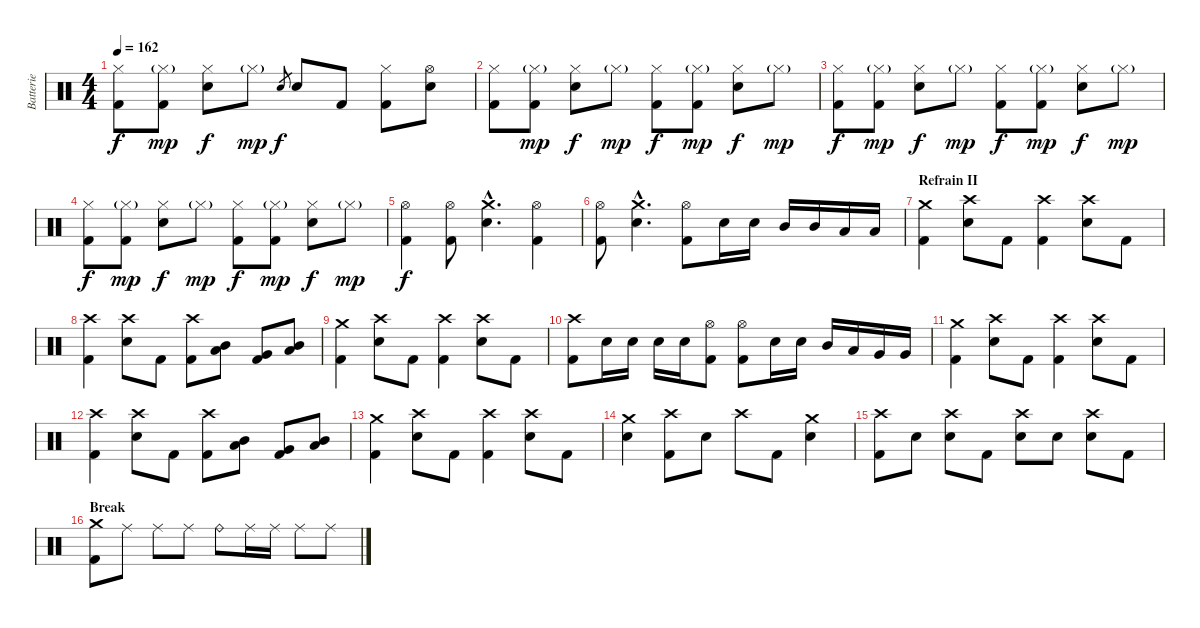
\track ("Batterie" "Batterie") {instrument percussion}
\staff {score}
\articulation defaults
\ts (4 4)
\tempo 162
\clef neutral
\ks c
("Hi-Hat (closed)" "Kick (hit) 2").8{dy f} ("Hi-Hat (closed)"{g} "Kick (hit) 2").8{dy mp} ("Hi-Hat (closed)" "Electric Snare (hit)").8{dy f} "Hi-Hat (closed)"{g}.8{dy mp} "Electric Snare (hit)".8{gr dy f} "Electric Snare (hit)".8 "Kick (hit) 2".8 ("Hi-Hat (closed)" "Kick (hit) 2").8 ("Hi-Hat (open)" "Electric Snare (hit)").8 |
("Hi-Hat (closed)" "Kick (hit) 2").8 ("Hi-Hat (closed)"{g} "Kick (hit) 2").8{dy mp} ("Hi-Hat (closed)" "Electric Snare (hit)").8{dy f} "Hi-Hat (closed)"{g}.8{dy mp} ("Hi-Hat (closed)" "Kick (hit) 2").8{dy f} ("Hi-Hat (closed)"{g} "Kick (hit) 2").8{dy mp} ("Hi-Hat (closed)" "Electric Snare (hit)").8{dy f} "Hi-Hat (closed)"{g}.8{dy mp} |
("Hi-Hat (closed)" "Kick (hit) 2").8{dy f} ("Hi-Hat (closed)"{g} "Kick (hit) 2").8{dy mp} ("Hi-Hat (closed)" "Electric Snare (hit)").8{dy f} "Hi-Hat (closed)"{g}.8{dy mp} ("Hi-Hat (closed)" "Kick (hit) 2").8{dy f} ("Hi-Hat (closed)"{g} "Kick (hit) 2").8{dy mp} ("Hi-Hat (closed)" "Electric Snare (hit)").8{dy f} "Hi-Hat (closed)"{g}.8{dy mp} |
("Hi-Hat (closed)" "Kick (hit) 2").8{dy f} ("Hi-Hat (closed)"{g} "Kick (hit) 2").8{dy mp} ("Hi-Hat (closed)" "Electric Snare (hit)").8{dy f} "Hi-Hat (closed)"{g}.8{dy mp} ("Hi-Hat (closed)" "Kick (hit) 2").8{dy f} ("Hi-Hat (closed)"{g} "Kick (hit) 2").8{dy mp} ("Hi-Hat (closed)" "Electric Snare (hit)").8{dy f} "Hi-Hat (closed)"{g}.8{dy mp} |
("Hi-Hat (open)" "Kick (hit) 2").4{dy f} ("Hi-Hat (open)" "Kick (hit) 2").8 ("Crash medium (hit)"{hac} "Electric Snare (hit)"{hac}).4{d} ("Hi-Hat (open)" "Kick (hit) 2").4 |
("Hi-Hat (open)" "Kick (hit) 2").8 ("Crash medium (hit)"{hac} "Electric Snare (hit)"{hac}).4{d} ("Hi-Hat (open)" "Kick (hit) 2").8 "Electric Snare (hit)".16 "Electric Snare (hit)".16 "Mid Tom (hit)".16 "Mid Tom (hit)".16 "Low Tom (hit)".16 "Low Tom (hit)".16 |
\section ("" "Refrain II")
("Crash medium (hit)" "Kick (hit) 2").4 ("Crash high (hit)" "Electric Snare (hit)").8 "Kick (hit) 2".8 ("Crash high (hit)" "Kick (hit) 2").4 ("Crash high (hit)" "Electric Snare (hit)").8 "Kick (hit) 2".8 |
("Crash high (hit)" "Kick (hit) 2").4 ("Crash high (hit)" "Electric Snare (hit)").8 "Kick (hit) 2".8 ("Crash high (hit)" "Kick (hit) 2").8 ("Mid Tom (hit)" "Low Tom (hit)").8 ("Very Low Tom (hit)" "Kick (hit) 2").8 ("Mid Tom (hit)" "Low Tom (hit)").8 |
("Crash medium (hit)" "Kick (hit) 2").4 ("Crash high (hit)" "Electric Snare (hit)").8 "Kick (hit) 2".8 ("Crash high (hit)" "Kick (hit) 2").4 ("Crash high (hit)" "Electric Snare (hit)").8 "Kick (hit) 2".8 |
("Crash high (hit)" "Kick (hit) 2").8 "Electric Snare (hit)".16 "Electric Snare (hit)".16 "Electric Snare (hit)".16 "Electric Snare (hit)".16 ("Hi-Hat (open)" "Kick (hit) 2").8 ("Hi-Hat (open)" "Kick (hit) 2").8 "Electric Snare (hit)".16 "Electric Snare (hit)".16 "Mid Tom (hit)".16 "Low Tom (hit)".16 "Very Low Tom (hit)".16 "Very Low Tom (hit)".16 |
("Crash medium (hit)" "Kick (hit) 2").4 ("Crash high (hit)" "Electric Snare (hit)").8 "Kick (hit) 2".8 ("Crash high (hit)" "Kick (hit) 2").4 ("Crash high (hit)" "Electric Snare (hit)").8 "Kick (hit) 2".8 |
("Crash high (hit)" "Kick (hit) 2").4 ("Crash high (hit)" "Electric Snare (hit)").8 "Kick (hit) 2".8 ("Crash high (hit)" "Kick (hit) 2").8 ("Mid Tom (hit)" "Low Tom (hit)").8 ("Very Low Tom (hit)" "Kick (hit) 2").8 ("Mid Tom (hit)" "Low Tom (hit)").8 |
("Crash medium (hit)" "Kick (hit) 2").4 ("Crash high (hit)" "Electric Snare (hit)").8 "Kick (hit) 2".8 ("Crash high (hit)" "Kick (hit) 2").4 ("Crash high (hit)" "Electric Snare (hit)").8 "Kick (hit) 2".8 |
("Crash medium (hit)" "Electric Snare (hit)").4 ("Crash high (hit)" "Kick (hit) 2").8 "Electric Snare (hit)".8 "Crash high (hit)".8 "Kick (hit) 2".8 ("Crash medium (hit)" "Electric Snare (hit)").4 |
("Crash high (hit)" "Kick (hit) 2").8 "Electric Snare (hit)".8 ("Crash high (hit)" "Electric Snare (hit)").8 "Kick (hit) 2".8 ("Crash high (hit)" "Electric Snare (hit)").8 "Electric Snare (hit)".8 ("Crash high (hit)" "Electric Snare (hit)").8 "Kick (hit) 2".8 |
\section ("" "Break")
("Crash medium (hit)" "Kick (hit) 2").8 "Ride (middle)".8 "Ride (middle)".8 "Ride (middle)".8 "Ride (bell)".8 "Ride (middle)".16 "Ride (middle)".16 "Ride (middle)".8 "Ride (middle)".8
